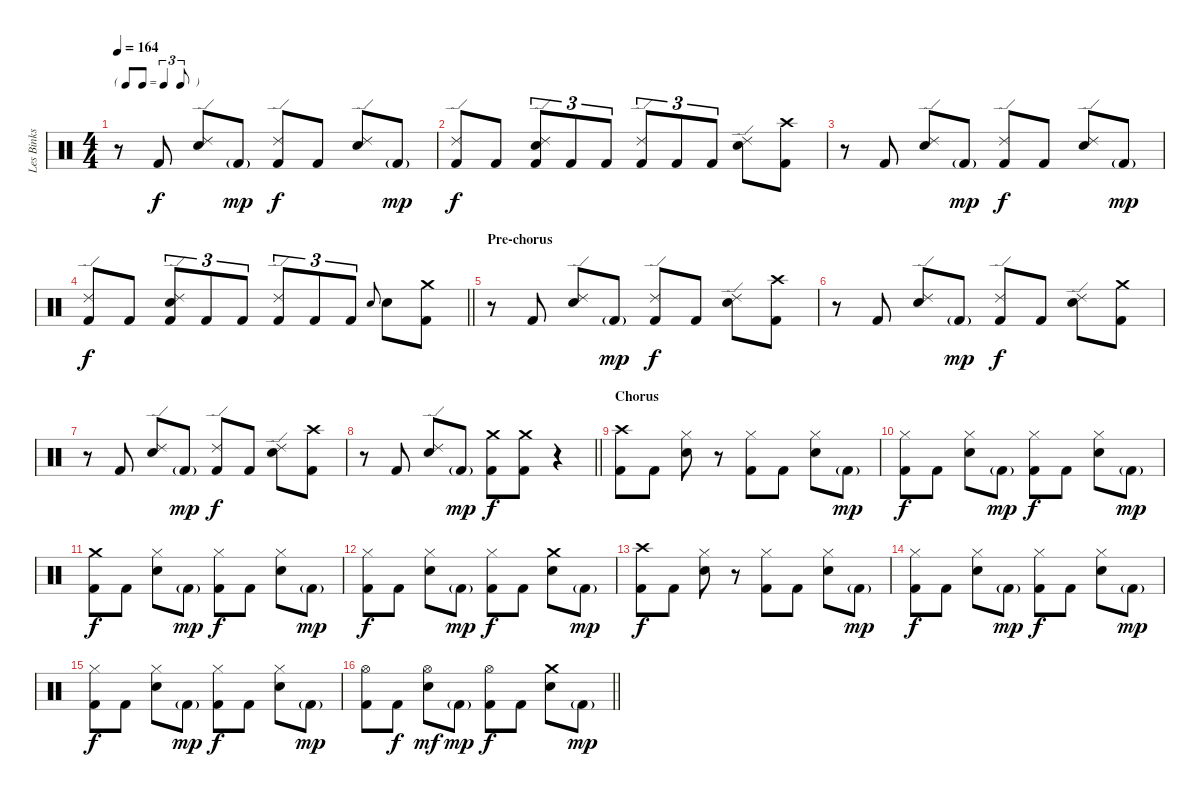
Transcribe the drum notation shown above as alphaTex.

\track ("Les Binks" "Les Binks") {instrument percussion}
\staff {score}
\articulation defaults
\ts (4 4)
\tf triplet8th
\tempo 164
\clef neutral
\ks c
r.8{dy f} "Kick (hit) 2".8 ("Ride (edge) 2" "Electric Snare (hit)").8 "Kick (hit) 2"{g}.8{dy mp} ("Ride (edge) 2" "Kick (hit) 2").8{dy f} "Kick (hit) 2".8 ("Ride (edge) 2" "Electric Snare (hit)").8 "Kick (hit) 2"{g}.8{dy mp} |
("Ride (edge) 2" "Kick (hit) 2").8{dy f} "Kick (hit) 2".8 ("Ride (edge) 2" "Electric Snare (hit)" "Kick (hit) 2").8{tu (3 2)} "Kick (hit) 2".8{tu (3 2)} "Kick (hit) 2".8{tu (3 2)} ("Ride (edge) 2" "Kick (hit) 2").8{tu (3 2)} "Kick (hit) 2".8{tu (3 2)} "Kick (hit) 2".8{tu (3 2)} ("Ride (edge) 2" "Electric Snare (hit)").8 ("Crash high (hit)" "Kick (hit) 2").8 |
r.8 "Kick (hit) 2".8 ("Ride (edge) 2" "Electric Snare (hit)").8 "Kick (hit) 2"{g}.8{dy mp} ("Ride (edge) 2" "Kick (hit) 2").8{dy f} "Kick (hit) 2".8 ("Ride (edge) 2" "Electric Snare (hit)").8 "Kick (hit) 2"{g}.8{dy mp} |
\barLineRight lightlight
("Ride (edge) 2" "Kick (hit) 2").8{dy f} "Kick (hit) 2".8 ("Ride (edge) 2" "Electric Snare (hit)" "Kick (hit) 2").8{tu (3 2)} "Kick (hit) 2".8{tu (3 2)} "Kick (hit) 2".8{tu (3 2)} ("Ride (edge) 2" "Kick (hit) 2").8{tu (3 2)} "Kick (hit) 2".8{tu (3 2)} "Kick (hit) 2".8{tu (3 2)} "Electric Snare (hit)".8{gr onbeat} "Electric Snare (hit)".8 ("Crash medium (hit)" "Kick (hit) 2").8 |
\section ("" "Pre-chorus")
r.8 "Kick (hit) 2".8 ("Ride (edge) 2" "Electric Snare (hit)").8 "Kick (hit) 2"{g}.8{dy mp} ("Ride (edge) 2" "Kick (hit) 2").8{dy f} "Kick (hit) 2".8 ("Ride (edge) 2" "Electric Snare (hit)").8 ("Crash high (hit)" "Kick (hit) 2").8 |
r.8 "Kick (hit) 2".8 ("Ride (edge) 2" "Electric Snare (hit)").8 "Kick (hit) 2"{g}.8{dy mp} ("Ride (edge) 2" "Kick (hit) 2").8{dy f} "Kick (hit) 2".8 ("Ride (edge) 2" "Electric Snare (hit)").8 ("Crash medium (hit)" "Kick (hit) 2").8 |
r.8 "Kick (hit) 2".8 ("Ride (edge) 2" "Electric Snare (hit)").8 "Kick (hit) 2"{g}.8{dy mp} ("Ride (edge) 2" "Kick (hit) 2").8{dy f} "Kick (hit) 2".8 ("Ride (edge) 2" "Electric Snare (hit)").8 ("Crash high (hit)" "Kick (hit) 2").8 |
\barLineRight lightlight
r.8 "Kick (hit) 2".8 ("Ride (edge) 2" "Electric Snare (hit)").8 "Kick (hit) 2"{g}.8{dy mp} ("Crash medium (hit)" "Kick (hit) 2").8{dy f} ("Crash medium (hit)" "Kick (hit) 2").8 r.4 |
\section ("" "Chorus")
("Crash high (hit)" "Kick (hit) 2").8 "Kick (hit) 2".8 ("Hi-Hat (closed)" "Electric Snare (hit)").8 r.8 ("Hi-Hat (closed)" "Kick (hit) 2").8 "Kick (hit) 2".8 ("Hi-Hat (closed)" "Electric Snare (hit)").8 "Kick (hit) 2"{g}.8{dy mp} |
("Hi-Hat (closed)" "Kick (hit) 2").8{dy f} "Kick (hit) 2".8 ("Hi-Hat (closed)" "Electric Snare (hit)").8 "Kick (hit) 2"{g}.8{dy mp} ("Hi-Hat (closed)" "Kick (hit) 2").8{dy f} "Kick (hit) 2".8 ("Hi-Hat (closed)" "Electric Snare (hit)").8 "Kick (hit) 2"{g}.8{dy mp} |
("Crash medium (hit)" "Kick (hit) 2").8{dy f} "Kick (hit) 2".8 ("Hi-Hat (closed)" "Electric Snare (hit)").8 "Kick (hit) 2"{g}.8{dy mp} ("Hi-Hat (closed)" "Kick (hit) 2").8{dy f} "Kick (hit) 2".8 ("Hi-Hat (closed)" "Electric Snare (hit)").8 "Kick (hit) 2"{g}.8{dy mp} |
("Hi-Hat (closed)" "Kick (hit) 2").8{dy f} "Kick (hit) 2".8 ("Hi-Hat (closed)" "Electric Snare (hit)").8 "Kick (hit) 2"{g}.8{dy mp} ("Hi-Hat (closed)" "Kick (hit) 2").8{dy f} "Kick (hit) 2".8 ("Crash medium (hit)" "Electric Snare (hit)").8 "Kick (hit) 2"{g}.8{dy mp} |
("Crash high (hit)" "Kick (hit) 2").8{dy f} "Kick (hit) 2".8 ("Hi-Hat (closed)" "Electric Snare (hit)").8 r.8 ("Hi-Hat (closed)" "Kick (hit) 2").8 "Kick (hit) 2".8 ("Hi-Hat (closed)" "Electric Snare (hit)").8 "Kick (hit) 2"{g}.8{dy mp} |
("Hi-Hat (closed)" "Kick (hit) 2").8{dy f} "Kick (hit) 2".8 ("Hi-Hat (closed)" "Electric Snare (hit)").8 "Kick (hit) 2"{g}.8{dy mp} ("Hi-Hat (closed)" "Kick (hit) 2").8{dy f} "Kick (hit) 2".8 ("Hi-Hat (closed)" "Electric Snare (hit)").8 "Kick (hit) 2"{g}.8{dy mp} |
("Hi-Hat (closed)" "Kick (hit) 2").8{dy f} "Kick (hit) 2".8 ("Hi-Hat (closed)" "Electric Snare (hit)").8 "Kick (hit) 2"{g}.8{dy mp} ("Hi-Hat (closed)" "Kick (hit) 2").8{dy f} "Kick (hit) 2".8 ("Hi-Hat (closed)" "Electric Snare (hit)").8 "Kick (hit) 2"{g}.8{dy mp} |
\barLineRight lightlight
("Hi-Hat (open)" "Kick (hit) 2").8 "Kick (hit) 2".8{dy f} ("Hi-Hat (open)" "Electric Snare (hit)").8{dy mf} "Kick (hit) 2"{g}.8{dy mp} ("Hi-Hat (open)" "Kick (hit) 2").8{dy f} "Kick (hit) 2".8 ("Crash medium (hit)" "Electric Snare (hit)").8 "Kick (hit) 2"{g}.8{dy mp}
